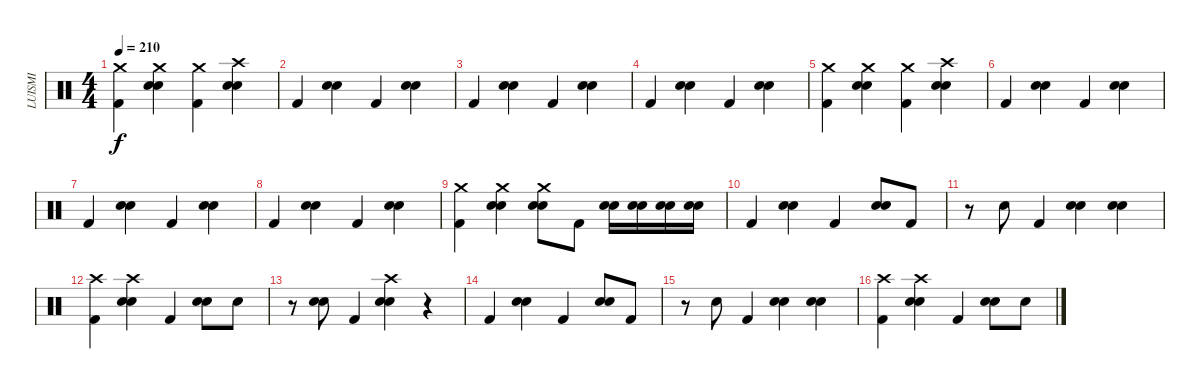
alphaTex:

\track ("LUISMI" "LUISMI") {instrument percussion}
\staff {score}
\articulation defaults
\ts (4 4)
\tempo 210
\clef neutral
\ks c
("Crash medium (hit)" "Kick (hit) 2").4{dy f} ("Crash medium (hit)" "Electric Snare (hit)" "Snare (hit) 2").4 ("Crash medium (hit)" "Kick (hit) 2").4 ("Crash high (hit)" "Electric Snare (hit)" "Snare (hit) 2").4 |
"Kick (hit) 2".4 ("Electric Snare (hit)" "Snare (hit) 2").4 "Kick (hit) 2".4 ("Electric Snare (hit)" "Snare (hit) 2").4 |
"Kick (hit) 2".4 ("Electric Snare (hit)" "Snare (hit) 2").4 "Kick (hit) 2".4 ("Electric Snare (hit)" "Snare (hit) 2").4 |
"Kick (hit) 2".4 ("Electric Snare (hit)" "Snare (hit) 2").4 "Kick (hit) 2".4 ("Electric Snare (hit)" "Snare (hit) 2").4 |
("Crash medium (hit)" "Kick (hit) 2").4 ("Crash medium (hit)" "Electric Snare (hit)" "Snare (hit) 2").4 ("Crash medium (hit)" "Kick (hit) 2").4 ("Crash high (hit)" "Electric Snare (hit)" "Snare (hit) 2").4 |
"Kick (hit) 2".4 ("Electric Snare (hit)" "Snare (hit) 2").4 "Kick (hit) 2".4 ("Electric Snare (hit)" "Snare (hit) 2").4 |
"Kick (hit) 2".4 ("Electric Snare (hit)" "Snare (hit) 2").4 "Kick (hit) 2".4 ("Electric Snare (hit)" "Snare (hit) 2").4 |
"Kick (hit) 2".4 ("Electric Snare (hit)" "Snare (hit) 2").4 "Kick (hit) 2".4 ("Electric Snare (hit)" "Snare (hit) 2").4 |
("Crash medium (hit)" "Kick (hit) 2").4 ("Crash medium (hit)" "Electric Snare (hit)" "Snare (hit) 2").4 ("Crash medium (hit)" "Electric Snare (hit)" "Snare (hit) 2").8 "Kick (hit) 2".8 ("Electric Snare (hit)" "Snare (hit) 2").16 ("Electric Snare (hit)" "Snare (hit) 2").16 ("Electric Snare (hit)" "Snare (hit) 2").16 ("Electric Snare (hit)" "Snare (hit) 2").16 |
"Kick (hit) 2".4 ("Electric Snare (hit)" "Snare (hit) 2").4 "Kick (hit) 2".4 ("Electric Snare (hit)" "Snare (hit) 2").8 "Kick (hit) 2".8 |
r.8 "Electric Snare (hit)".8 "Kick (hit) 2".4 ("Electric Snare (hit)" "Snare (hit) 2").4 ("Electric Snare (hit)" "Snare (hit) 2").4 |
("Crash high (hit)" "Kick (hit) 2").4 ("Crash high (hit)" "Electric Snare (hit)" "Snare (hit) 2").4 "Kick (hit) 2".4 ("Electric Snare (hit)" "Snare (hit) 2").8 "Snare (hit) 2".8 |
r.8 ("Electric Snare (hit)" "Snare (hit) 2").8 "Kick (hit) 2".4 ("Crash high (hit)" "Electric Snare (hit)" "Snare (hit) 2").4 r.4 |
"Kick (hit) 2".4 ("Electric Snare (hit)" "Snare (hit) 2").4 "Kick (hit) 2".4 ("Electric Snare (hit)" "Snare (hit) 2").8 "Kick (hit) 2".8 |
r.8 "Electric Snare (hit)".8 "Kick (hit) 2".4 ("Electric Snare (hit)" "Snare (hit) 2").4 ("Electric Snare (hit)" "Snare (hit) 2").4 |
("Crash high (hit)" "Kick (hit) 2").4 ("Crash high (hit)" "Electric Snare (hit)" "Snare (hit) 2").4 "Kick (hit) 2".4 ("Electric Snare (hit)" "Snare (hit) 2").8 "Snare (hit) 2".8
